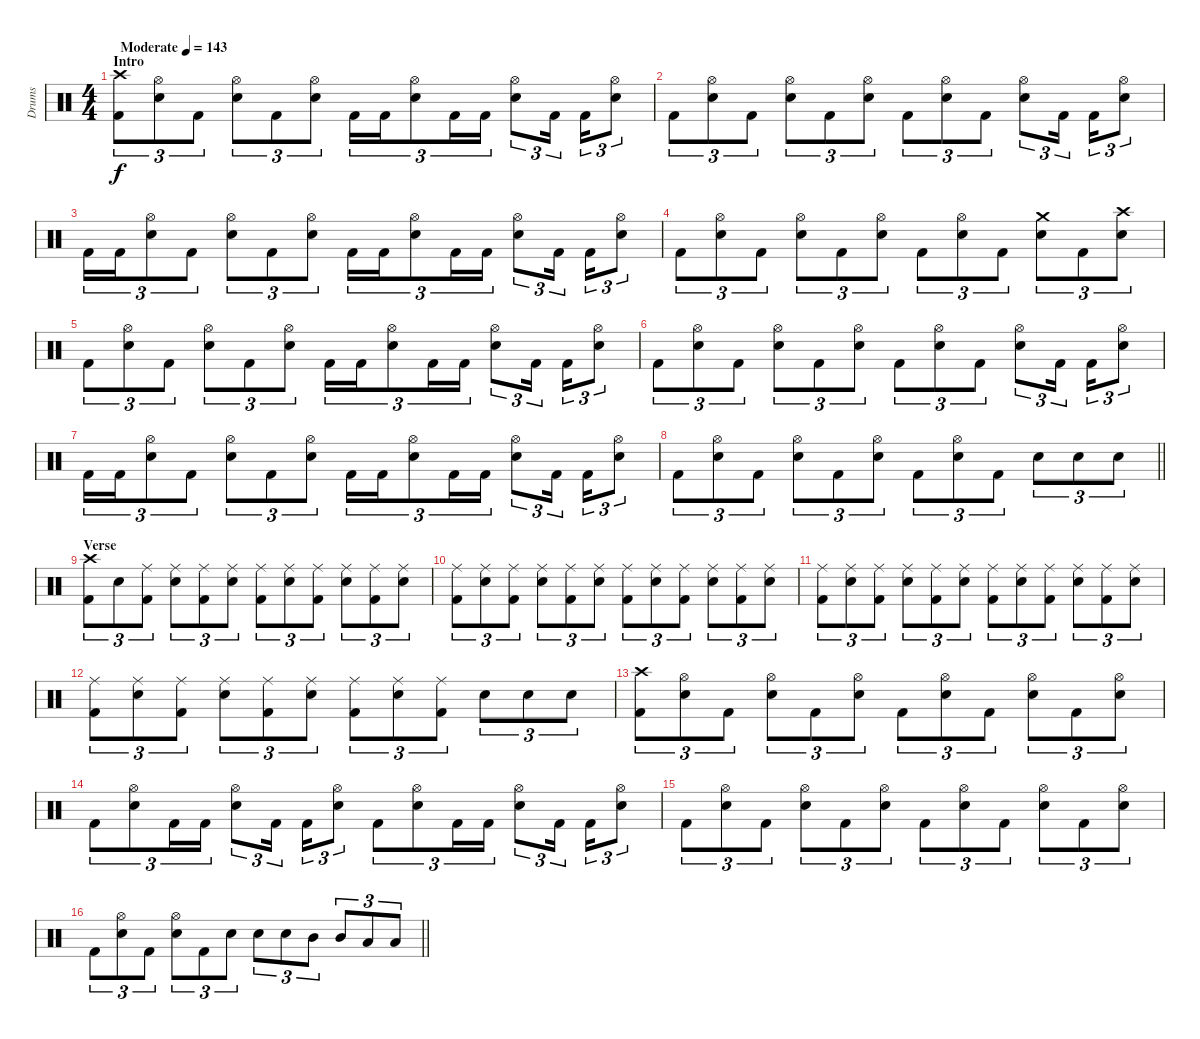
\track ("Drums" "Drums") {instrument percussion}
\staff {score}
\articulation defaults
\ts (4 4)
\section ("" "Intro")
\tempo (143 "Moderate")
\clef neutral
\ks c
("Crash high (hit)" "Kick (hit) 2").8{tu (3 2) dy f} ("Hi-Hat (open)" "Snare (hit) 2").8{tu (3 2)} "Kick (hit) 2".8{tu (3 2)} ("Hi-Hat (open)" "Snare (hit) 2").8{tu (3 2)} "Kick (hit) 2".8{tu (3 2)} ("Hi-Hat (open)" "Snare (hit) 2").8{tu (3 2)} "Kick (hit) 2".16{tu (3 2)} "Kick (hit) 2".16{tu (3 2)} ("Hi-Hat (open)" "Snare (hit) 2").8{tu (3 2)} "Kick (hit) 2".16{tu (3 2)} "Kick (hit) 2".16{tu (3 2)} ("Hi-Hat (open)" "Snare (hit) 2").8{tu (3 2)} "Kick (hit) 2".16{tu (3 2) beam splitsecondary} "Kick (hit) 2".16{tu (3 2)} ("Hi-Hat (open)" "Snare (hit) 2").8{tu (3 2)} |
"Kick (hit) 2".8{tu (3 2)} ("Hi-Hat (open)" "Snare (hit) 2").8{tu (3 2)} "Kick (hit) 2".8{tu (3 2)} ("Hi-Hat (open)" "Snare (hit) 2").8{tu (3 2)} "Kick (hit) 2".8{tu (3 2)} ("Hi-Hat (open)" "Snare (hit) 2").8{tu (3 2)} "Kick (hit) 2".8{tu (3 2)} ("Hi-Hat (open)" "Snare (hit) 2").8{tu (3 2)} "Kick (hit) 2".8{tu (3 2)} ("Hi-Hat (open)" "Snare (hit) 2").8{tu (3 2)} "Kick (hit) 2".16{tu (3 2) beam splitsecondary} "Kick (hit) 2".16{tu (3 2)} ("Hi-Hat (open)" "Snare (hit) 2").8{tu (3 2)} |
"Kick (hit) 2".16{tu (3 2)} "Kick (hit) 2".16{tu (3 2)} ("Hi-Hat (open)" "Snare (hit) 2").8{tu (3 2)} "Kick (hit) 2".8{tu (3 2)} ("Hi-Hat (open)" "Snare (hit) 2").8{tu (3 2)} "Kick (hit) 2".8{tu (3 2)} ("Hi-Hat (open)" "Snare (hit) 2").8{tu (3 2)} "Kick (hit) 2".16{tu (3 2)} "Kick (hit) 2".16{tu (3 2)} ("Hi-Hat (open)" "Snare (hit) 2").8{tu (3 2)} "Kick (hit) 2".16{tu (3 2)} "Kick (hit) 2".16{tu (3 2)} ("Hi-Hat (open)" "Snare (hit) 2").8{tu (3 2)} "Kick (hit) 2".16{tu (3 2) beam splitsecondary} "Kick (hit) 2".16{tu (3 2)} ("Hi-Hat (open)" "Snare (hit) 2").8{tu (3 2)} |
"Kick (hit) 2".8{tu (3 2)} ("Hi-Hat (open)" "Snare (hit) 2").8{tu (3 2)} "Kick (hit) 2".8{tu (3 2)} ("Hi-Hat (open)" "Snare (hit) 2").8{tu (3 2)} "Kick (hit) 2".8{tu (3 2)} ("Hi-Hat (open)" "Snare (hit) 2").8{tu (3 2)} "Kick (hit) 2".8{tu (3 2)} ("Hi-Hat (open)" "Snare (hit) 2").8{tu (3 2)} "Kick (hit) 2".8{tu (3 2)} ("Crash medium (hit)" "Snare (hit) 2").8{tu (3 2)} "Kick (hit) 2".8{tu (3 2)} ("Crash high (hit)" "Snare (hit) 2").8{tu (3 2)} |
"Kick (hit) 2".8{tu (3 2)} ("Hi-Hat (open)" "Snare (hit) 2").8{tu (3 2)} "Kick (hit) 2".8{tu (3 2)} ("Hi-Hat (open)" "Snare (hit) 2").8{tu (3 2)} "Kick (hit) 2".8{tu (3 2)} ("Hi-Hat (open)" "Snare (hit) 2").8{tu (3 2)} "Kick (hit) 2".16{tu (3 2)} "Kick (hit) 2".16{tu (3 2)} ("Hi-Hat (open)" "Snare (hit) 2").8{tu (3 2)} "Kick (hit) 2".16{tu (3 2)} "Kick (hit) 2".16{tu (3 2)} ("Hi-Hat (open)" "Snare (hit) 2").8{tu (3 2)} "Kick (hit) 2".16{tu (3 2) beam splitsecondary} "Kick (hit) 2".16{tu (3 2)} ("Hi-Hat (open)" "Snare (hit) 2").8{tu (3 2)} |
"Kick (hit) 2".8{tu (3 2)} ("Hi-Hat (open)" "Snare (hit) 2").8{tu (3 2)} "Kick (hit) 2".8{tu (3 2)} ("Hi-Hat (open)" "Snare (hit) 2").8{tu (3 2)} "Kick (hit) 2".8{tu (3 2)} ("Hi-Hat (open)" "Snare (hit) 2").8{tu (3 2)} "Kick (hit) 2".8{tu (3 2)} ("Hi-Hat (open)" "Snare (hit) 2").8{tu (3 2)} "Kick (hit) 2".8{tu (3 2)} ("Hi-Hat (open)" "Snare (hit) 2").8{tu (3 2)} "Kick (hit) 2".16{tu (3 2) beam splitsecondary} "Kick (hit) 2".16{tu (3 2)} ("Hi-Hat (open)" "Snare (hit) 2").8{tu (3 2)} |
"Kick (hit) 2".16{tu (3 2)} "Kick (hit) 2".16{tu (3 2)} ("Hi-Hat (open)" "Snare (hit) 2").8{tu (3 2)} "Kick (hit) 2".8{tu (3 2)} ("Hi-Hat (open)" "Snare (hit) 2").8{tu (3 2)} "Kick (hit) 2".8{tu (3 2)} ("Hi-Hat (open)" "Snare (hit) 2").8{tu (3 2)} "Kick (hit) 2".16{tu (3 2)} "Kick (hit) 2".16{tu (3 2)} ("Hi-Hat (open)" "Snare (hit) 2").8{tu (3 2)} "Kick (hit) 2".16{tu (3 2)} "Kick (hit) 2".16{tu (3 2)} ("Hi-Hat (open)" "Snare (hit) 2").8{tu (3 2)} "Kick (hit) 2".16{tu (3 2) beam splitsecondary} "Kick (hit) 2".16{tu (3 2)} ("Hi-Hat (open)" "Snare (hit) 2").8{tu (3 2)} |
\barLineRight lightlight "Kick (hit) 2".8{tu (3 2)}
("Hi-Hat (open)" "Snare (hit) 2").8{tu (3 2)} "Kick (hit) 2".8{tu (3 2)} ("Hi-Hat (open)" "Snare (hit) 2").8{tu (3 2)} "Kick (hit) 2".8{tu (3 2)} ("Hi-Hat (open)" "Snare (hit) 2").8{tu (3 2)} "Kick (hit) 2".8{tu (3 2)} ("Hi-Hat (open)" "Snare (hit) 2").8{tu (3 2)} "Kick (hit) 2".8{tu (3 2)} "Snare (hit) 2".8{tu (3 2)} "Snare (hit) 2".8{tu (3 2)} "Snare (hit) 2".8{tu (3 2)} |
\section ("" "Verse")
("Crash high (hit)" "Kick (hit) 2").8{tu (3 2)} "Snare (hit) 2".8{tu (3 2)} ("Ride (middle)" "Kick (hit) 2").8{tu (3 2)} ("Ride (middle)" "Snare (hit) 2").8{tu (3 2)} ("Ride (middle)" "Kick (hit) 2").8{tu (3 2)} ("Ride (middle)" "Snare (hit) 2").8{tu (3 2)} ("Ride (middle)" "Kick (hit) 2").8{tu (3 2)} ("Ride (middle)" "Snare (hit) 2").8{tu (3 2)} ("Ride (middle)" "Kick (hit) 2").8{tu (3 2)} ("Ride (middle)" "Snare (hit) 2").8{tu (3 2)} ("Ride (middle)" "Kick (hit) 2").8{tu (3 2)} ("Ride (middle)" "Snare (hit) 2").8{tu (3 2)} |
("Ride (middle)" "Kick (hit) 2").8{tu (3 2)} ("Ride (middle)" "Snare (hit) 2").8{tu (3 2)} ("Ride (middle)" "Kick (hit) 2").8{tu (3 2)} ("Ride (middle)" "Snare (hit) 2").8{tu (3 2)} ("Ride (middle)" "Kick (hit) 2").8{tu (3 2)} ("Ride (middle)" "Snare (hit) 2").8{tu (3 2)} ("Ride (middle)" "Kick (hit) 2").8{tu (3 2)} ("Ride (middle)" "Snare (hit) 2").8{tu (3 2)} ("Ride (middle)" "Kick (hit) 2").8{tu (3 2)} ("Ride (middle)" "Snare (hit) 2").8{tu (3 2)} ("Ride (middle)" "Kick (hit) 2").8{tu (3 2)} ("Ride (middle)" "Snare (hit) 2").8{tu (3 2)} |
("Ride (middle)" "Kick (hit) 2").8{tu (3 2)} ("Ride (middle)" "Snare (hit) 2").8{tu (3 2)} ("Ride (middle)" "Kick (hit) 2").8{tu (3 2)} ("Ride (middle)" "Snare (hit) 2").8{tu (3 2)} ("Ride (middle)" "Kick (hit) 2").8{tu (3 2)} ("Ride (middle)" "Snare (hit) 2").8{tu (3 2)} ("Ride (middle)" "Kick (hit) 2").8{tu (3 2)} ("Ride (middle)" "Snare (hit) 2").8{tu (3 2)} ("Ride (middle)" "Kick (hit) 2").8{tu (3 2)} ("Ride (middle)" "Snare (hit) 2").8{tu (3 2)} ("Ride (middle)" "Kick (hit) 2").8{tu (3 2)} ("Ride (middle)" "Snare (hit) 2").8{tu (3 2)} |
("Ride (middle)" "Kick (hit) 2").8{tu (3 2)} ("Ride (middle)" "Snare (hit) 2").8{tu (3 2)} ("Ride (middle)" "Kick (hit) 2").8{tu (3 2)} ("Ride (middle)" "Snare (hit) 2").8{tu (3 2)} ("Ride (middle)" "Kick (hit) 2").8{tu (3 2)} ("Ride (middle)" "Snare (hit) 2").8{tu (3 2)} ("Ride (middle)" "Kick (hit) 2").8{tu (3 2)} ("Ride (middle)" "Snare (hit) 2").8{tu (3 2)} ("Ride (middle)" "Kick (hit) 2").8{tu (3 2)} "Snare (hit) 2".8{tu (3 2)} "Snare (hit) 2".8{tu (3 2)} "Snare (hit) 2".8{tu (3 2)} |
("Crash high (hit)" "Kick (hit) 2").8{tu (3 2)} ("Hi-Hat (open)" "Snare (hit) 2").8{tu (3 2)} "Kick (hit) 2".8{tu (3 2)} ("Hi-Hat (open)" "Snare (hit) 2").8{tu (3 2)} "Kick (hit) 2".8{tu (3 2)} ("Hi-Hat (open)" "Snare (hit) 2").8{tu (3 2)} "Kick (hit) 2".8{tu (3 2)} ("Hi-Hat (open)" "Snare (hit) 2").8{tu (3 2)} "Kick (hit) 2".8{tu (3 2)} ("Hi-Hat (open)" "Snare (hit) 2").8{tu (3 2)} "Kick (hit) 2".8{tu (3 2)} ("Hi-Hat (open)" "Snare (hit) 2").8{tu (3 2)} |
"Kick (hit) 2".8{tu (3 2)} ("Hi-Hat (open)" "Snare (hit) 2").8{tu (3 2)} "Kick (hit) 2".16{tu (3 2)} "Kick (hit) 2".16{tu (3 2)} ("Hi-Hat (open)" "Snare (hit) 2").8{tu (3 2)} "Kick (hit) 2".16{tu (3 2) beam splitsecondary} "Kick (hit) 2".16{tu (3 2)} ("Hi-Hat (open)" "Snare (hit) 2").8{tu (3 2)} "Kick (hit) 2".8{tu (3 2)} ("Hi-Hat (open)" "Snare (hit) 2").8{tu (3 2)} "Kick (hit) 2".16{tu (3 2)} "Kick (hit) 2".16{tu (3 2)} ("Hi-Hat (open)" "Snare (hit) 2").8{tu (3 2)} "Kick (hit) 2".16{tu (3 2) beam splitsecondary} "Kick (hit) 2".16{tu (3 2)} ("Hi-Hat (open)" "Snare (hit) 2").8{tu (3 2)} |
"Kick (hit) 2".8{tu (3 2)} ("Hi-Hat (open)" "Snare (hit) 2").8{tu (3 2)} "Kick (hit) 2".8{tu (3 2)} ("Hi-Hat (open)" "Snare (hit) 2").8{tu (3 2)} "Kick (hit) 2".8{tu (3 2)} ("Hi-Hat (open)" "Snare (hit) 2").8{tu (3 2)} "Kick (hit) 2".8{tu (3 2)} ("Hi-Hat (open)" "Snare (hit) 2").8{tu (3 2)} "Kick (hit) 2".8{tu (3 2)} ("Hi-Hat (open)" "Snare (hit) 2").8{tu (3 2)} "Kick (hit) 2".8{tu (3 2)} ("Hi-Hat (open)" "Snare (hit) 2").8{tu (3 2)} |
\barLineRight lightlight "Kick (hit) 2".8{tu (3 2)}
("Hi-Hat (open)" "Snare (hit) 2").8{tu (3 2)} "Kick (hit) 2".8{tu (3 2)} ("Hi-Hat (open)" "Snare (hit) 2").8{tu (3 2)} "Kick (hit) 2".8{tu (3 2)} "Snare (hit) 2".8{tu (3 2)} "Snare (hit) 2".8{tu (3 2)} "Snare (hit) 2".8{tu (3 2)} "Mid Tom (hit)".8{tu (3 2)} "Mid Tom (hit)".8{tu (3 2)} "Low Tom (hit)".8{tu (3 2)} "Low Tom (hit)".8{tu (3 2)}
